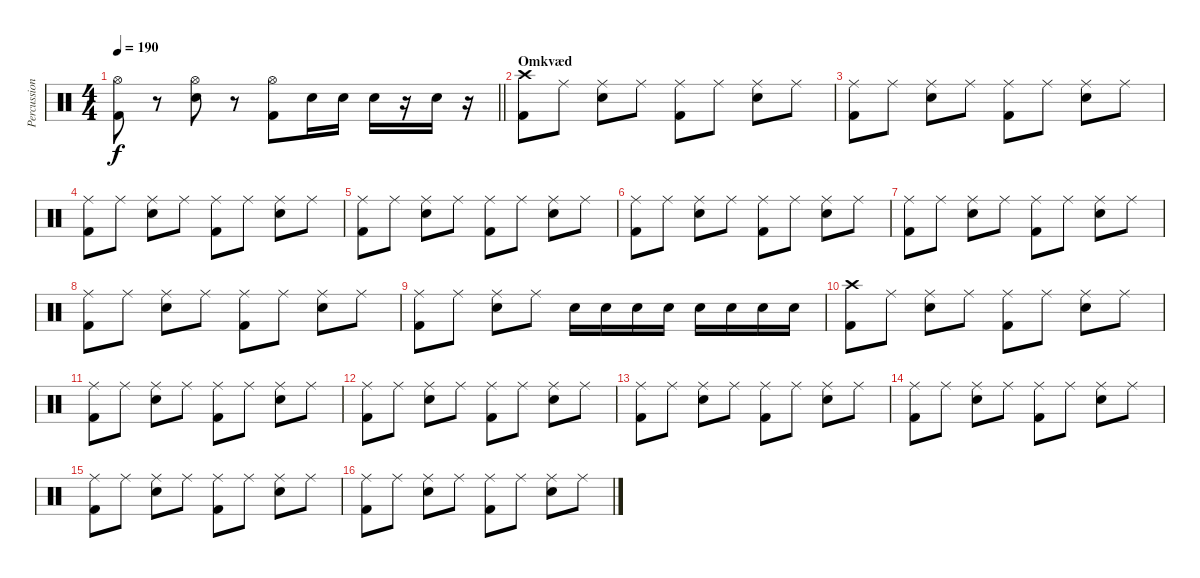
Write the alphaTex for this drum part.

\track ("Percussion" "Percussion") {instrument percussion}
\staff {score}
\articulation defaults
\ts (4 4)
\tempo 190
\clef neutral
\barLineRight lightlight
\ks c
("Kick (hit) 2" "Hi-Hat (open)").8{dy f} r.8 ("Hi-Hat (open)" "Snare (hit) 2").8 r.8 ("Kick (hit) 2" "Hi-Hat (open)").8 "Snare (hit) 2".16 "Snare (hit) 2".16 "Snare (hit) 2".16 r.16 "Snare (hit) 2".16 r.16 |
\section ("" "Omkvæd")
("Kick (hit) 2" "Crash high (hit)").8 "Ride (middle)".8 ("Ride (middle)" "Snare (hit) 2").8 "Ride (middle)".8 ("Kick (hit) 2" "Ride (middle)").8 "Ride (middle)".8 ("Ride (middle)" "Snare (hit) 2").8 "Ride (middle)".8 |
("Kick (hit) 2" "Ride (middle)").8 "Ride (middle)".8 ("Ride (middle)" "Snare (hit) 2").8 "Ride (middle)".8 ("Kick (hit) 2" "Ride (middle)").8 "Ride (middle)".8 ("Ride (middle)" "Snare (hit) 2").8 "Ride (middle)".8 |
("Kick (hit) 2" "Ride (middle)").8 "Ride (middle)".8 ("Ride (middle)" "Snare (hit) 2").8 "Ride (middle)".8 ("Kick (hit) 2" "Ride (middle)").8 "Ride (middle)".8 ("Ride (middle)" "Snare (hit) 2").8 "Ride (middle)".8 |
("Kick (hit) 2" "Ride (middle)").8 "Ride (middle)".8 ("Ride (middle)" "Snare (hit) 2").8 "Ride (middle)".8 ("Kick (hit) 2" "Ride (middle)").8 "Ride (middle)".8 ("Ride (middle)" "Snare (hit) 2").8 "Ride (middle)".8 |
("Kick (hit) 2" "Ride (middle)").8 "Ride (middle)".8 ("Ride (middle)" "Snare (hit) 2").8 "Ride (middle)".8 ("Kick (hit) 2" "Ride (middle)").8 "Ride (middle)".8 ("Ride (middle)" "Snare (hit) 2").8 "Ride (middle)".8 |
("Kick (hit) 2" "Ride (middle)").8 "Ride (middle)".8 ("Ride (middle)" "Snare (hit) 2").8 "Ride (middle)".8 ("Kick (hit) 2" "Ride (middle)").8 "Ride (middle)".8 ("Ride (middle)" "Snare (hit) 2").8 "Ride (middle)".8 |
("Kick (hit) 2" "Ride (middle)").8 "Ride (middle)".8 ("Ride (middle)" "Snare (hit) 2").8 "Ride (middle)".8 ("Kick (hit) 2" "Ride (middle)").8 "Ride (middle)".8 ("Ride (middle)" "Snare (hit) 2").8 "Ride (middle)".8 |
("Kick (hit) 2" "Ride (middle)").8 "Ride (middle)".8 ("Ride (middle)" "Snare (hit) 2").8 "Ride (middle)".8 "Snare (hit) 2".16 "Snare (hit) 2".16 "Snare (hit) 2".16 "Snare (hit) 2".16 "Snare (hit) 2".16 "Snare (hit) 2".16 "Snare (hit) 2".16 "Snare (hit) 2".16 |
("Kick (hit) 2" "Crash high (hit)").8 "Ride (middle)".8 ("Ride (middle)" "Snare (hit) 2").8 "Ride (middle)".8 ("Kick (hit) 2" "Ride (middle)").8 "Ride (middle)".8 ("Ride (middle)" "Snare (hit) 2").8 "Ride (middle)".8 |
("Kick (hit) 2" "Ride (middle)").8 "Ride (middle)".8 ("Ride (middle)" "Snare (hit) 2").8 "Ride (middle)".8 ("Kick (hit) 2" "Ride (middle)").8 "Ride (middle)".8 ("Ride (middle)" "Snare (hit) 2").8 "Ride (middle)".8 |
("Kick (hit) 2" "Ride (middle)").8 "Ride (middle)".8 ("Ride (middle)" "Snare (hit) 2").8 "Ride (middle)".8 ("Kick (hit) 2" "Ride (middle)").8 "Ride (middle)".8 ("Ride (middle)" "Snare (hit) 2").8 "Ride (middle)".8 |
("Kick (hit) 2" "Ride (middle)").8 "Ride (middle)".8 ("Ride (middle)" "Snare (hit) 2").8 "Ride (middle)".8 ("Kick (hit) 2" "Ride (middle)").8 "Ride (middle)".8 ("Ride (middle)" "Snare (hit) 2").8 "Ride (middle)".8 |
("Kick (hit) 2" "Ride (middle)").8 "Ride (middle)".8 ("Ride (middle)" "Snare (hit) 2").8 "Ride (middle)".8 ("Kick (hit) 2" "Ride (middle)").8 "Ride (middle)".8 ("Ride (middle)" "Snare (hit) 2").8 "Ride (middle)".8 |
("Kick (hit) 2" "Ride (middle)").8 "Ride (middle)".8 ("Ride (middle)" "Snare (hit) 2").8 "Ride (middle)".8 ("Kick (hit) 2" "Ride (middle)").8 "Ride (middle)".8 ("Ride (middle)" "Snare (hit) 2").8 "Ride (middle)".8 |
("Kick (hit) 2" "Ride (middle)").8 "Ride (middle)".8 ("Ride (middle)" "Snare (hit) 2").8 "Ride (middle)".8 ("Kick (hit) 2" "Ride (middle)").8 "Ride (middle)".8 ("Ride (middle)" "Snare (hit) 2").8 "Ride (middle)".8
